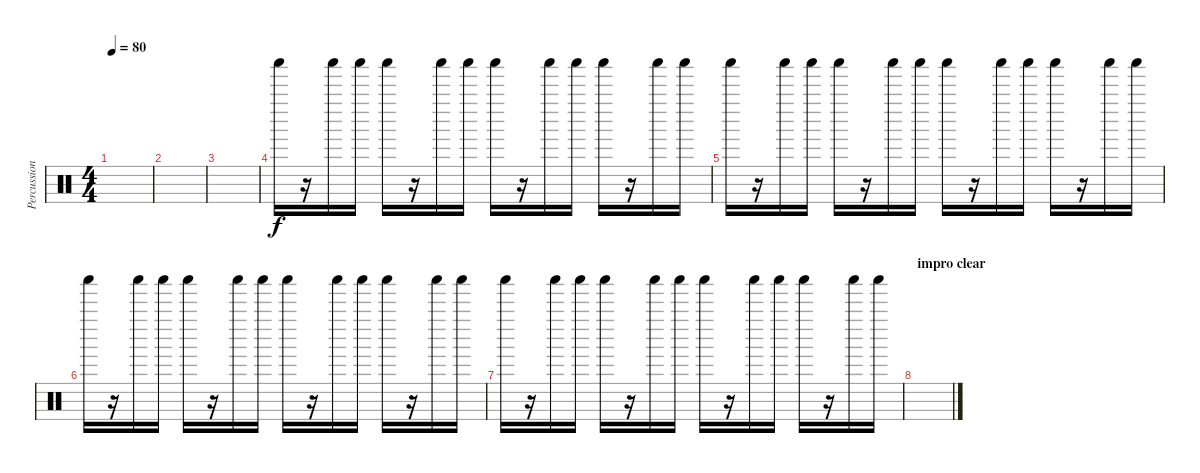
\track ("Percussioni" "Percussion") {instrument percussion}
\staff {score}
\articulation defaults
\ts (4 4)
\tempo 80
\clef neutral
\ks c
|
|
|
"Shaker (hit)".16 r.16 "Shaker (hit)".16 "Shaker (hit)".16 "Shaker (hit)".16 r.16 "Shaker (hit)".16 "Shaker (hit)".16 "Shaker (hit)".16 r.16 "Shaker (hit)".16 "Shaker (hit)".16 "Shaker (hit)".16 r.16 "Shaker (hit)".16 "Shaker (hit)".16 |
"Shaker (hit)".16 r.16 "Shaker (hit)".16 "Shaker (hit)".16 "Shaker (hit)".16 r.16 "Shaker (hit)".16 "Shaker (hit)".16 "Shaker (hit)".16 r.16 "Shaker (hit)".16 "Shaker (hit)".16 "Shaker (hit)".16 r.16 "Shaker (hit)".16 "Shaker (hit)".16 |
"Shaker (hit)".16 r.16 "Shaker (hit)".16 "Shaker (hit)".16 "Shaker (hit)".16 r.16 "Shaker (hit)".16 "Shaker (hit)".16 "Shaker (hit)".16 r.16 "Shaker (hit)".16 "Shaker (hit)".16 "Shaker (hit)".16 r.16 "Shaker (hit)".16 "Shaker (hit)".16 |
"Shaker (hit)".16 r.16 "Shaker (hit)".16 "Shaker (hit)".16 "Shaker (hit)".16 r.16 "Shaker (hit)".16 "Shaker (hit)".16 "Shaker (hit)".16 r.16 "Shaker (hit)".16 "Shaker (hit)".16 "Shaker (hit)".16 r.16 "Shaker (hit)".16 "Shaker (hit)".16 |
\section ("" "impro clear")
